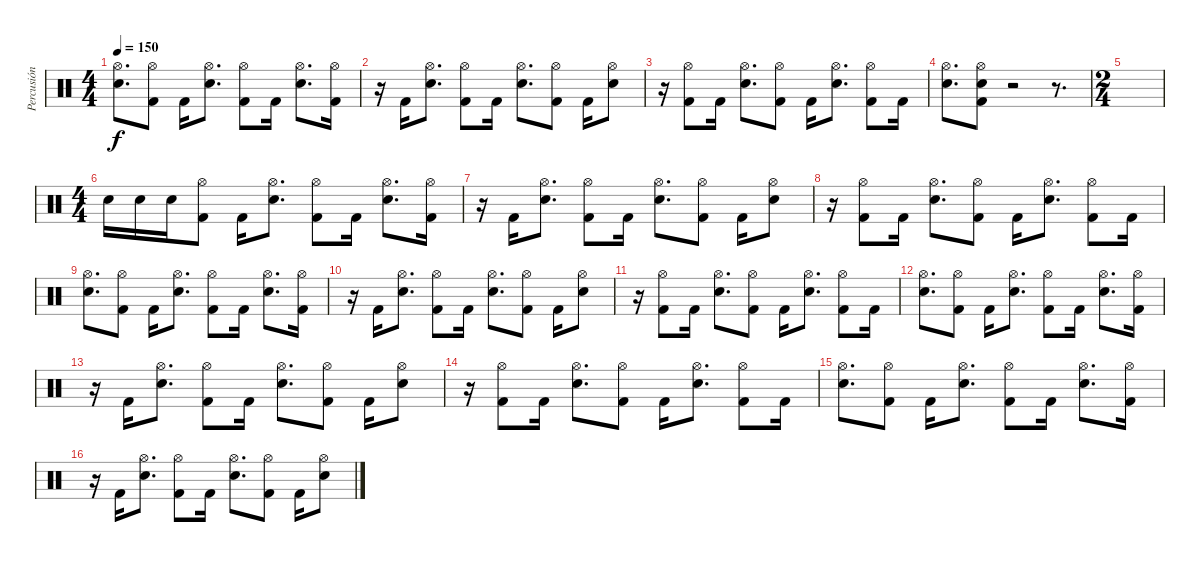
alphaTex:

\track ("Percusión" "Percusión") {instrument percussion}
\staff {score}
\articulation defaults
\ts (4 4)
\tempo 150
\clef neutral
\ks c
("Hi-Hat (open)" "Electric Snare (hit)").8{d dy f} ("Hi-Hat (open)" "Kick (hit) 2").8 "Kick (hit) 2".16 ("Hi-Hat (open)" "Electric Snare (hit)").8{d} ("Hi-Hat (open)" "Kick (hit) 2").8 "Kick (hit) 2".16 ("Hi-Hat (open)" "Electric Snare (hit)").8{d} ("Hi-Hat (open)" "Kick (hit) 2").16 |
r.16 "Kick (hit) 2".16 ("Hi-Hat (open)" "Electric Snare (hit)").8{d} ("Hi-Hat (open)" "Kick (hit) 2").8 "Kick (hit) 2".16 ("Hi-Hat (open)" "Electric Snare (hit)").8{d} ("Hi-Hat (open)" "Kick (hit) 2").8 "Kick (hit) 2".16 ("Hi-Hat (open)" "Electric Snare (hit)").8 |
r.16 ("Hi-Hat (open)" "Kick (hit) 2").8 "Kick (hit) 2".16 ("Hi-Hat (open)" "Electric Snare (hit)").8{d} ("Hi-Hat (open)" "Kick (hit) 2").8 "Kick (hit) 2".16 ("Hi-Hat (open)" "Electric Snare (hit)").8{d} ("Hi-Hat (open)" "Kick (hit) 2").8 "Kick (hit) 2".16 |
("Hi-Hat (open)" "Electric Snare (hit)").8{d} ("Hi-Hat (open)" "Electric Snare (hit)" "Kick (hit) 2").8 r.2 r.8{d} |
\ts (2 4)
|
\ts (4 4)
"Electric Snare (hit)".16 "Electric Snare (hit)".16 "Electric Snare (hit)".16 ("Hi-Hat (open)" "Kick (hit) 2").8 "Kick (hit) 2".16 ("Hi-Hat (open)" "Electric Snare (hit)").8{d} ("Hi-Hat (open)" "Kick (hit) 2").8 "Kick (hit) 2".16 ("Hi-Hat (open)" "Electric Snare (hit)").8{d} ("Hi-Hat (open)" "Kick (hit) 2").16 |
r.16 "Kick (hit) 2".16 ("Hi-Hat (open)" "Electric Snare (hit)").8{d} ("Hi-Hat (open)" "Kick (hit) 2").8 "Kick (hit) 2".16 ("Hi-Hat (open)" "Electric Snare (hit)").8{d} ("Hi-Hat (open)" "Kick (hit) 2").8 "Kick (hit) 2".16 ("Hi-Hat (open)" "Electric Snare (hit)").8 |
r.16 ("Hi-Hat (open)" "Kick (hit) 2").8 "Kick (hit) 2".16 ("Hi-Hat (open)" "Electric Snare (hit)").8{d} ("Hi-Hat (open)" "Kick (hit) 2").8 "Kick (hit) 2".16 ("Hi-Hat (open)" "Electric Snare (hit)").8{d} ("Hi-Hat (open)" "Kick (hit) 2").8 "Kick (hit) 2".16 |
("Hi-Hat (open)" "Electric Snare (hit)").8{d} ("Hi-Hat (open)" "Kick (hit) 2").8 "Kick (hit) 2".16 ("Hi-Hat (open)" "Electric Snare (hit)").8{d} ("Hi-Hat (open)" "Kick (hit) 2").8 "Kick (hit) 2".16 ("Hi-Hat (open)" "Electric Snare (hit)").8{d} ("Hi-Hat (open)" "Kick (hit) 2").16 |
r.16 "Kick (hit) 2".16 ("Hi-Hat (open)" "Electric Snare (hit)").8{d} ("Hi-Hat (open)" "Kick (hit) 2").8 "Kick (hit) 2".16 ("Hi-Hat (open)" "Electric Snare (hit)").8{d} ("Hi-Hat (open)" "Kick (hit) 2").8 "Kick (hit) 2".16 ("Hi-Hat (open)" "Electric Snare (hit)").8 |
r.16 ("Hi-Hat (open)" "Kick (hit) 2").8 "Kick (hit) 2".16 ("Hi-Hat (open)" "Electric Snare (hit)").8{d} ("Hi-Hat (open)" "Kick (hit) 2").8 "Kick (hit) 2".16 ("Hi-Hat (open)" "Electric Snare (hit)").8{d} ("Hi-Hat (open)" "Kick (hit) 2").8 "Kick (hit) 2".16 |
("Hi-Hat (open)" "Electric Snare (hit)").8{d} ("Hi-Hat (open)" "Kick (hit) 2").8 "Kick (hit) 2".16 ("Hi-Hat (open)" "Electric Snare (hit)").8{d} ("Hi-Hat (open)" "Kick (hit) 2").8 "Kick (hit) 2".16 ("Hi-Hat (open)" "Electric Snare (hit)").8{d} ("Hi-Hat (open)" "Kick (hit) 2").16 |
r.16 "Kick (hit) 2".16 ("Hi-Hat (open)" "Electric Snare (hit)").8{d} ("Hi-Hat (open)" "Kick (hit) 2").8 "Kick (hit) 2".16 ("Hi-Hat (open)" "Electric Snare (hit)").8{d} ("Hi-Hat (open)" "Kick (hit) 2").8 "Kick (hit) 2".16 ("Hi-Hat (open)" "Electric Snare (hit)").8 |
r.16 ("Hi-Hat (open)" "Kick (hit) 2").8 "Kick (hit) 2".16 ("Hi-Hat (open)" "Electric Snare (hit)").8{d} ("Hi-Hat (open)" "Kick (hit) 2").8 "Kick (hit) 2".16 ("Hi-Hat (open)" "Electric Snare (hit)").8{d} ("Hi-Hat (open)" "Kick (hit) 2").8 "Kick (hit) 2".16 |
("Hi-Hat (open)" "Electric Snare (hit)").8{d} ("Hi-Hat (open)" "Kick (hit) 2").8 "Kick (hit) 2".16 ("Hi-Hat (open)" "Electric Snare (hit)").8{d} ("Hi-Hat (open)" "Kick (hit) 2").8 "Kick (hit) 2".16 ("Hi-Hat (open)" "Electric Snare (hit)").8{d} ("Hi-Hat (open)" "Kick (hit) 2").16 |
r.16 "Kick (hit) 2".16 ("Hi-Hat (open)" "Electric Snare (hit)").8{d} ("Hi-Hat (open)" "Kick (hit) 2").8 "Kick (hit) 2".16 ("Hi-Hat (open)" "Electric Snare (hit)").8{d} ("Hi-Hat (open)" "Kick (hit) 2").8 "Kick (hit) 2".16 ("Hi-Hat (open)" "Electric Snare (hit)").8
